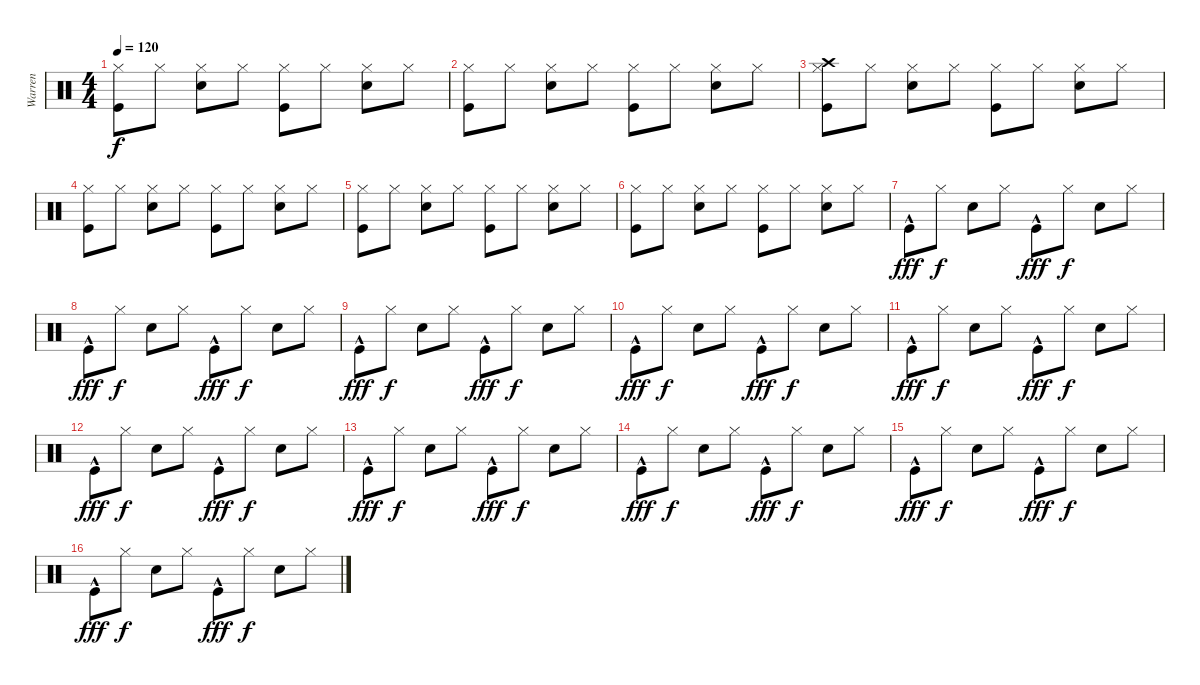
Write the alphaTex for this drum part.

\track ("Warren" "Warren") {instrument percussion}
\staff {score}
\articulation defaults
\ts (4 4)
\tempo 120
\clef neutral
\ks c
("Hi-Hat (closed)" "Kick (hit)").8{dy f} "Hi-Hat (closed)".8 ("Hi-Hat (closed)" "Electric Snare (hit)").8 "Hi-Hat (closed)".8 ("Hi-Hat (closed)" "Kick (hit)").8 "Hi-Hat (closed)".8 ("Hi-Hat (closed)" "Electric Snare (hit)").8 "Hi-Hat (closed)".8 |
("Hi-Hat (closed)" "Kick (hit)").8 "Hi-Hat (closed)".8 ("Hi-Hat (closed)" "Electric Snare (hit)").8 "Hi-Hat (closed)".8 ("Hi-Hat (closed)" "Kick (hit)").8 "Hi-Hat (closed)".8 ("Hi-Hat (closed)" "Electric Snare (hit)").8 "Hi-Hat (closed)".8 |
("Crash high (hit)" "Hi-Hat (closed)" "Kick (hit)").8 "Hi-Hat (closed)".8 ("Hi-Hat (closed)" "Electric Snare (hit)").8 "Hi-Hat (closed)".8 ("Hi-Hat (closed)" "Kick (hit)").8 "Hi-Hat (closed)".8 ("Hi-Hat (closed)" "Electric Snare (hit)").8 "Hi-Hat (closed)".8 |
("Hi-Hat (closed)" "Kick (hit)").8 "Hi-Hat (closed)".8 ("Hi-Hat (closed)" "Electric Snare (hit)").8 "Hi-Hat (closed)".8 ("Hi-Hat (closed)" "Kick (hit)").8 "Hi-Hat (closed)".8 ("Hi-Hat (closed)" "Electric Snare (hit)").8 "Hi-Hat (closed)".8 |
("Hi-Hat (closed)" "Kick (hit)").8 "Hi-Hat (closed)".8 ("Hi-Hat (closed)" "Electric Snare (hit)").8 "Hi-Hat (closed)".8 ("Hi-Hat (closed)" "Kick (hit)").8 "Hi-Hat (closed)".8 ("Hi-Hat (closed)" "Electric Snare (hit)").8 "Hi-Hat (closed)".8 |
("Hi-Hat (closed)" "Kick (hit)").8 "Hi-Hat (closed)".8 ("Hi-Hat (closed)" "Electric Snare (hit)").8 "Hi-Hat (closed)".8 ("Hi-Hat (closed)" "Kick (hit)").8 "Hi-Hat (closed)".8 ("Hi-Hat (closed)" "Electric Snare (hit)").8 "Hi-Hat (closed)".8 |
"Kick (hit)"{hac}.8{dy fff} "Hi-Hat (closed)".8{dy f} "Electric Snare (hit)".8 "Hi-Hat (closed)".8 "Kick (hit)"{hac}.8{dy fff} "Hi-Hat (closed)".8{dy f} "Electric Snare (hit)".8 "Hi-Hat (closed)".8 |
"Kick (hit)"{hac}.8{dy fff} "Hi-Hat (closed)".8{dy f} "Electric Snare (hit)".8 "Hi-Hat (closed)".8 "Kick (hit)"{hac}.8{dy fff} "Hi-Hat (closed)".8{dy f} "Electric Snare (hit)".8 "Hi-Hat (closed)".8 |
"Kick (hit)"{hac}.8{dy fff} "Hi-Hat (closed)".8{dy f} "Electric Snare (hit)".8 "Hi-Hat (closed)".8 "Kick (hit)"{hac}.8{dy fff} "Hi-Hat (closed)".8{dy f} "Electric Snare (hit)".8 "Hi-Hat (closed)".8 |
"Kick (hit)"{hac}.8{dy fff} "Hi-Hat (closed)".8{dy f} "Electric Snare (hit)".8 "Hi-Hat (closed)".8 "Kick (hit)"{hac}.8{dy fff} "Hi-Hat (closed)".8{dy f} "Electric Snare (hit)".8 "Hi-Hat (closed)".8 |
"Kick (hit)"{hac}.8{dy fff} "Hi-Hat (closed)".8{dy f} "Electric Snare (hit)".8 "Hi-Hat (closed)".8 "Kick (hit)"{hac}.8{dy fff} "Hi-Hat (closed)".8{dy f} "Electric Snare (hit)".8 "Hi-Hat (closed)".8 |
"Kick (hit)"{hac}.8{dy fff} "Hi-Hat (closed)".8{dy f} "Electric Snare (hit)".8 "Hi-Hat (closed)".8 "Kick (hit)"{hac}.8{dy fff} "Hi-Hat (closed)".8{dy f} "Electric Snare (hit)".8 "Hi-Hat (closed)".8 |
"Kick (hit)"{hac}.8{dy fff} "Hi-Hat (closed)".8{dy f} "Electric Snare (hit)".8 "Hi-Hat (closed)".8 "Kick (hit)"{hac}.8{dy fff} "Hi-Hat (closed)".8{dy f} "Electric Snare (hit)".8 "Hi-Hat (closed)".8 |
"Kick (hit)"{hac}.8{dy fff} "Hi-Hat (closed)".8{dy f} "Electric Snare (hit)".8 "Hi-Hat (closed)".8 "Kick (hit)"{hac}.8{dy fff} "Hi-Hat (closed)".8{dy f} "Electric Snare (hit)".8 "Hi-Hat (closed)".8 |
"Kick (hit)"{hac}.8{dy fff} "Hi-Hat (closed)".8{dy f} "Electric Snare (hit)".8 "Hi-Hat (closed)".8 "Kick (hit)"{hac}.8{dy fff} "Hi-Hat (closed)".8{dy f} "Electric Snare (hit)".8 "Hi-Hat (closed)".8 |
"Kick (hit)"{hac}.8{dy fff} "Hi-Hat (closed)".8{dy f} "Electric Snare (hit)".8 "Hi-Hat (closed)".8 "Kick (hit)"{hac}.8{dy fff} "Hi-Hat (closed)".8{dy f} "Electric Snare (hit)".8 "Hi-Hat (closed)".8
